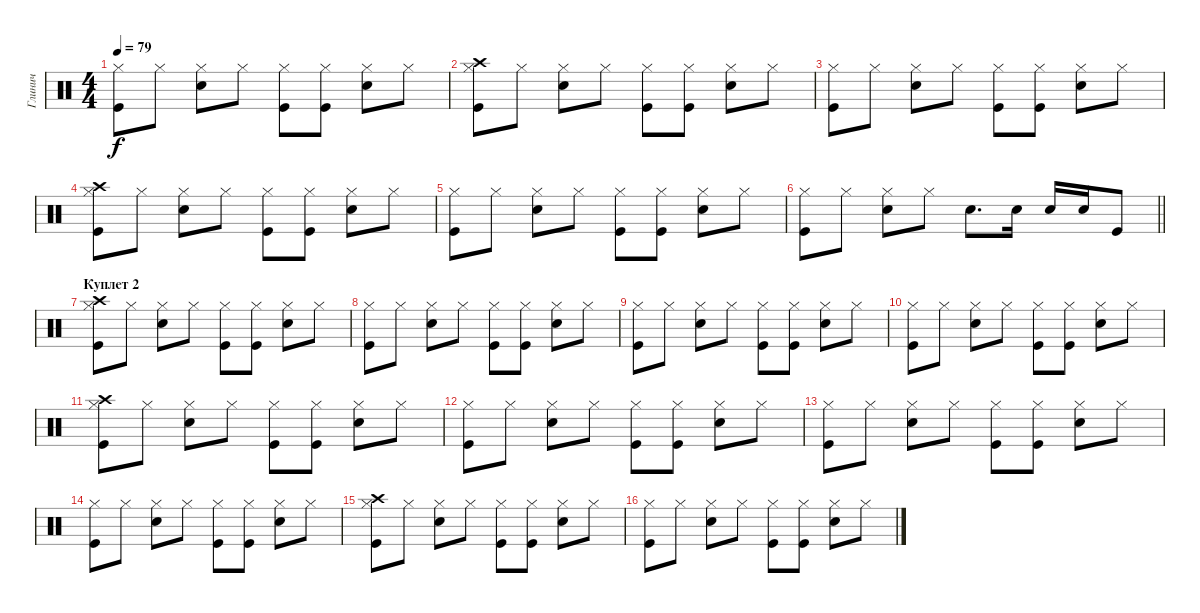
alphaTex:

\track ("Глинич" "Глинич") {instrument percussion}
\staff {score}
\articulation defaults
\ts (4 4)
\tempo 79
\clef neutral
\ks c
("Hi-Hat (closed)" "Kick (hit)").8{dy f} "Hi-Hat (closed)".8 ("Hi-Hat (closed)" "Snare (hit) 2").8 "Hi-Hat (closed)".8 ("Hi-Hat (closed)" "Kick (hit)").8 ("Hi-Hat (closed)" "Kick (hit)").8 ("Hi-Hat (closed)" "Snare (hit) 2").8 "Hi-Hat (closed)".8 |
("Hi-Hat (closed)" "Crash high (hit)" "Kick (hit)").8 "Hi-Hat (closed)".8 ("Hi-Hat (closed)" "Snare (hit) 2").8 "Hi-Hat (closed)".8 ("Hi-Hat (closed)" "Kick (hit)").8 ("Hi-Hat (closed)" "Kick (hit)").8 ("Hi-Hat (closed)" "Snare (hit) 2").8 "Hi-Hat (closed)".8 |
("Hi-Hat (closed)" "Kick (hit)").8 "Hi-Hat (closed)".8 ("Hi-Hat (closed)" "Snare (hit) 2").8 "Hi-Hat (closed)".8 ("Hi-Hat (closed)" "Kick (hit)").8 ("Hi-Hat (closed)" "Kick (hit)").8 ("Hi-Hat (closed)" "Snare (hit) 2").8 "Hi-Hat (closed)".8 |
("Hi-Hat (closed)" "Crash high (hit)" "Kick (hit)").8 "Hi-Hat (closed)".8 ("Hi-Hat (closed)" "Snare (hit) 2").8 "Hi-Hat (closed)".8 ("Hi-Hat (closed)" "Kick (hit)").8 ("Hi-Hat (closed)" "Kick (hit)").8 ("Hi-Hat (closed)" "Snare (hit) 2").8 "Hi-Hat (closed)".8 |
("Hi-Hat (closed)" "Kick (hit)").8 "Hi-Hat (closed)".8 ("Hi-Hat (closed)" "Snare (hit) 2").8 "Hi-Hat (closed)".8 ("Hi-Hat (closed)" "Kick (hit)").8 ("Hi-Hat (closed)" "Kick (hit)").8 ("Hi-Hat (closed)" "Snare (hit) 2").8 "Hi-Hat (closed)".8 |
\barLineRight lightlight
("Hi-Hat (closed)" "Kick (hit)").8 "Hi-Hat (closed)".8 ("Hi-Hat (closed)" "Snare (hit) 2").8 "Hi-Hat (closed)".8 "Snare (hit) 2".8{d} "Snare (hit) 2".16 "Snare (hit) 2".16 "Snare (hit) 2".16 "Kick (hit)".8 |
\section ("" "Куплет 2")
("Hi-Hat (closed)" "Crash high (hit)" "Kick (hit)").8 "Hi-Hat (closed)".8 ("Hi-Hat (closed)" "Snare (hit) 2").8 "Hi-Hat (closed)".8 ("Hi-Hat (closed)" "Kick (hit)").8 ("Hi-Hat (closed)" "Kick (hit)").8 ("Hi-Hat (closed)" "Snare (hit) 2").8 "Hi-Hat (closed)".8 |
("Hi-Hat (closed)" "Kick (hit)").8 "Hi-Hat (closed)".8 ("Hi-Hat (closed)" "Snare (hit) 2").8 "Hi-Hat (closed)".8 ("Hi-Hat (closed)" "Kick (hit)").8 ("Hi-Hat (closed)" "Kick (hit)").8 ("Hi-Hat (closed)" "Snare (hit) 2").8 "Hi-Hat (closed)".8 |
("Hi-Hat (closed)" "Kick (hit)").8 "Hi-Hat (closed)".8 ("Hi-Hat (closed)" "Snare (hit) 2").8 "Hi-Hat (closed)".8 ("Hi-Hat (closed)" "Kick (hit)").8 ("Hi-Hat (closed)" "Kick (hit)").8 ("Hi-Hat (closed)" "Snare (hit) 2").8 "Hi-Hat (closed)".8 |
("Hi-Hat (closed)" "Kick (hit)").8 "Hi-Hat (closed)".8 ("Hi-Hat (closed)" "Snare (hit) 2").8 "Hi-Hat (closed)".8 ("Hi-Hat (closed)" "Kick (hit)").8 ("Hi-Hat (closed)" "Kick (hit)").8 ("Hi-Hat (closed)" "Snare (hit) 2").8 "Hi-Hat (closed)".8 |
("Hi-Hat (closed)" "Crash high (hit)" "Kick (hit)").8 "Hi-Hat (closed)".8 ("Hi-Hat (closed)" "Snare (hit) 2").8 "Hi-Hat (closed)".8 ("Hi-Hat (closed)" "Kick (hit)").8 ("Hi-Hat (closed)" "Kick (hit)").8 ("Hi-Hat (closed)" "Snare (hit) 2").8 "Hi-Hat (closed)".8 |
("Hi-Hat (closed)" "Kick (hit)").8 "Hi-Hat (closed)".8 ("Hi-Hat (closed)" "Snare (hit) 2").8 "Hi-Hat (closed)".8 ("Hi-Hat (closed)" "Kick (hit)").8 ("Hi-Hat (closed)" "Kick (hit)").8 ("Hi-Hat (closed)" "Snare (hit) 2").8 "Hi-Hat (closed)".8 |
("Hi-Hat (closed)" "Kick (hit)").8 "Hi-Hat (closed)".8 ("Hi-Hat (closed)" "Snare (hit) 2").8 "Hi-Hat (closed)".8 ("Hi-Hat (closed)" "Kick (hit)").8 ("Hi-Hat (closed)" "Kick (hit)").8 ("Hi-Hat (closed)" "Snare (hit) 2").8 "Hi-Hat (closed)".8 |
("Hi-Hat (closed)" "Kick (hit)").8 "Hi-Hat (closed)".8 ("Hi-Hat (closed)" "Snare (hit) 2").8 "Hi-Hat (closed)".8 ("Hi-Hat (closed)" "Kick (hit)").8 ("Hi-Hat (closed)" "Kick (hit)").8 ("Hi-Hat (closed)" "Snare (hit) 2").8 "Hi-Hat (closed)".8 |
("Hi-Hat (closed)" "Crash high (hit)" "Kick (hit)").8 "Hi-Hat (closed)".8 ("Hi-Hat (closed)" "Snare (hit) 2").8 "Hi-Hat (closed)".8 ("Hi-Hat (closed)" "Kick (hit)").8 ("Hi-Hat (closed)" "Kick (hit)").8 ("Hi-Hat (closed)" "Snare (hit) 2").8 "Hi-Hat (closed)".8 |
("Hi-Hat (closed)" "Kick (hit)").8 "Hi-Hat (closed)".8 ("Hi-Hat (closed)" "Snare (hit) 2").8 "Hi-Hat (closed)".8 ("Hi-Hat (closed)" "Kick (hit)").8 ("Hi-Hat (closed)" "Kick (hit)").8 ("Hi-Hat (closed)" "Snare (hit) 2").8 "Hi-Hat (closed)".8
